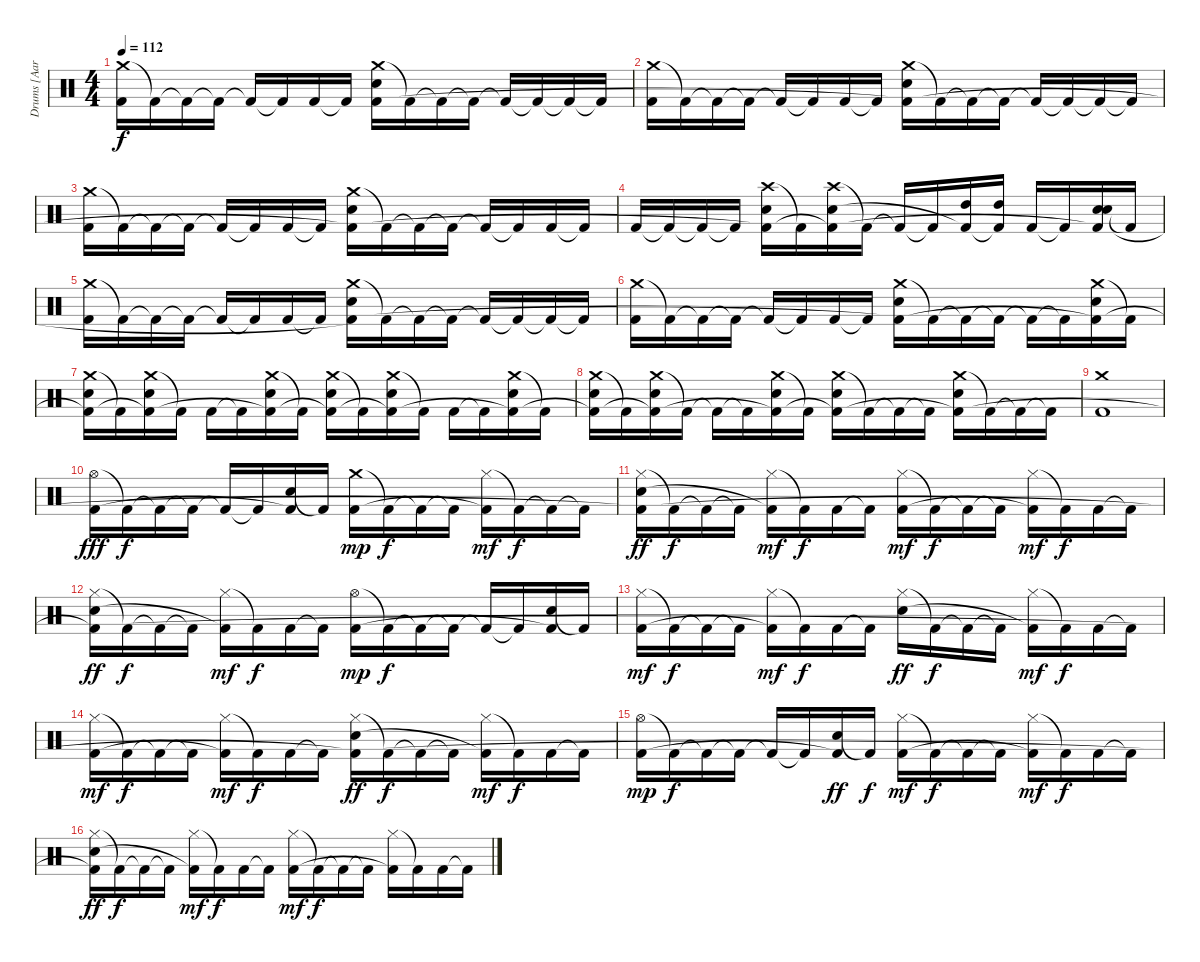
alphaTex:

\track ("Drums [Aaron Harris]" "Drums [Aar") {instrument percussion}
\staff {score}
\articulation defaults
\ts (4 4)
\tempo 112
\clef neutral
\ks c
("Crash medium (hit)" "Kick (hit) 2").16{dy f} "Kick (hit) 2"{t}.16 "Kick (hit) 2"{t}.16 "Kick (hit) 2"{t}.16 "Kick (hit) 2"{t}.16 "Kick (hit) 2"{t}.16 "Kick (hit) 2".16 "Kick (hit) 2"{t}.16 ("Crash medium (hit)" "Electric Snare (hit)" "Kick (hit) 2"{t}).16 "Kick (hit) 2"{t}.16 "Kick (hit) 2"{t}.16 "Kick (hit) 2"{t}.16 "Kick (hit) 2"{t}.16 "Kick (hit) 2"{t}.16 "Kick (hit) 2"{t}.16 "Kick (hit) 2"{t}.16 |
("Crash medium (hit)" "Kick (hit) 2").16 "Kick (hit) 2"{t}.16 "Kick (hit) 2"{t}.16 "Kick (hit) 2"{t}.16 "Kick (hit) 2"{t}.16 "Kick (hit) 2"{t}.16 "Kick (hit) 2".16 "Kick (hit) 2"{t}.16 ("Crash medium (hit)" "Electric Snare (hit)" "Kick (hit) 2"{t}).16 "Kick (hit) 2"{t}.16 "Kick (hit) 2"{t}.16 "Kick (hit) 2"{t}.16 "Kick (hit) 2"{t}.16 "Kick (hit) 2"{t}.16 "Kick (hit) 2"{t}.16 "Kick (hit) 2"{t}.16 |
("Crash medium (hit)" "Kick (hit) 2").16 "Kick (hit) 2"{t}.16 "Kick (hit) 2"{t}.16 "Kick (hit) 2"{t}.16 "Kick (hit) 2"{t}.16 "Kick (hit) 2"{t}.16 "Kick (hit) 2".16 "Kick (hit) 2"{t}.16 ("Crash medium (hit)" "Electric Snare (hit)" "Kick (hit) 2"{t}).16 "Kick (hit) 2"{t}.16 "Kick (hit) 2"{t}.16 "Kick (hit) 2"{t}.16 "Kick (hit) 2"{t}.16 "Kick (hit) 2"{t}.16 "Kick (hit) 2".16 "Kick (hit) 2"{t}.16 |
"Kick (hit) 2".16 "Kick (hit) 2"{t}.16 "Kick (hit) 2"{t}.16 "Kick (hit) 2"{t}.16 ("Crash high (hit)" "Electric Snare (hit)" "Kick (hit) 2"{t}).16 "Kick (hit) 2"{t}.16 ("Crash high (hit)" "Electric Snare (hit)" "Kick (hit) 2"{t}).16 "Kick (hit) 2"{t}.16 "Kick (hit) 2"{t}.16 "Kick (hit) 2"{t}.16 ("High Tom (hit)" "Kick (hit) 2"{t}).16 ("High Tom (hit)" "Kick (hit) 2"{t}).16 "Kick (hit) 2".16 "Kick (hit) 2"{t}.16 ("Electric Snare (hit)" "Electric Snare (hit)" "Kick (hit) 2"{t}).16 "Kick (hit) 2"{t}.16 |
("Crash medium (hit)" "Kick (hit) 2").16 "Kick (hit) 2"{t}.16 "Kick (hit) 2"{t}.16 "Kick (hit) 2"{t}.16 "Kick (hit) 2"{t}.16 "Kick (hit) 2"{t}.16 "Kick (hit) 2".16 "Kick (hit) 2"{t}.16 ("Crash medium (hit)" "Electric Snare (hit)" "Kick (hit) 2"{t}).16 "Kick (hit) 2"{t}.16 "Kick (hit) 2"{t}.16 "Kick (hit) 2"{t}.16 "Kick (hit) 2"{t}.16 "Kick (hit) 2"{t}.16 "Kick (hit) 2"{t}.16 "Kick (hit) 2"{t}.16 |
("Crash medium (hit)" "Kick (hit) 2").16 "Kick (hit) 2"{t}.16 "Kick (hit) 2"{t}.16 "Kick (hit) 2"{t}.16 "Kick (hit) 2"{t}.16 "Kick (hit) 2"{t}.16 "Kick (hit) 2".16 "Kick (hit) 2"{t}.16 ("Crash medium (hit)" "Electric Snare (hit)" "Kick (hit) 2"{t}).16 "Kick (hit) 2"{t}.16 "Kick (hit) 2"{t}.16 "Kick (hit) 2"{t}.16 "Kick (hit) 2"{t}.16 "Kick (hit) 2"{t}.16 ("Crash medium (hit)" "Electric Snare (hit)" "Kick (hit) 2"{t}).16 "Kick (hit) 2"{t}.16 |
("Crash medium (hit)" "Electric Snare (hit)" "Kick (hit) 2"{t}).16 "Kick (hit) 2"{t}.16 ("Crash medium (hit)" "Electric Snare (hit)" "Kick (hit) 2"{t}).16 "Kick (hit) 2"{t}.16 "Kick (hit) 2".16 "Kick (hit) 2"{t}.16 ("Crash medium (hit)" "Electric Snare (hit)" "Kick (hit) 2"{t}).16 "Kick (hit) 2"{t}.16 ("Crash medium (hit)" "Electric Snare (hit)" "Kick (hit) 2"{t}).16 "Kick (hit) 2"{t}.16 ("Crash medium (hit)" "Electric Snare (hit)" "Kick (hit) 2"{t}).16 "Kick (hit) 2"{t}.16 "Kick (hit) 2".16 "Kick (hit) 2"{t}.16 ("Crash medium (hit)" "Electric Snare (hit)" "Kick (hit) 2"{t}).16 "Kick (hit) 2"{t}.16 |
("Crash medium (hit)" "Electric Snare (hit)" "Kick (hit) 2"{t}).16 "Kick (hit) 2"{t}.16 ("Crash medium (hit)" "Electric Snare (hit)" "Kick (hit) 2"{t}).16 "Kick (hit) 2"{t}.16 "Kick (hit) 2"{t}.16 "Kick (hit) 2"{t}.16 ("Crash medium (hit)" "Electric Snare (hit)" "Kick (hit) 2"{t}).16 "Kick (hit) 2"{t}.16 ("Crash medium (hit)" "Electric Snare (hit)" "Kick (hit) 2"{t}).16 "Kick (hit) 2"{t}.16 "Kick (hit) 2"{t}.16 "Kick (hit) 2"{t}.16 ("Crash medium (hit)" "Electric Snare (hit)" "Kick (hit) 2"{t}).16 "Kick (hit) 2"{t}.16 "Kick (hit) 2"{t}.16 "Kick (hit) 2"{t}.16 |
("Crash medium (hit)" "Kick (hit) 2").1 |
("Hi-Hat (open)" "Kick (hit) 2").16{dy fff} "Kick (hit) 2"{t}.16{dy f} "Kick (hit) 2"{t}.16 "Kick (hit) 2"{t}.16 "Kick (hit) 2"{t}.16 "Kick (hit) 2"{t}.16 ("Electric Snare (hit)" "Kick (hit) 2"{t}).16 "Kick (hit) 2"{t}.16 ("Crash medium (hit)" "Kick (hit) 2").16{dy mp} "Kick (hit) 2"{t}.16{dy f} "Kick (hit) 2"{t}.16 "Kick (hit) 2"{t}.16 ("Hi-Hat (closed)" "Kick (hit) 2"{t}).16{dy mf} "Kick (hit) 2"{t}.16{dy f} "Kick (hit) 2"{t}.16 "Kick (hit) 2"{t}.16 |
("Hi-Hat (closed)" "Electric Snare (hit)" "Kick (hit) 2"{t}).16{dy ff} "Kick (hit) 2"{t}.16{dy f} "Kick (hit) 2"{t}.16 "Kick (hit) 2"{t}.16 ("Hi-Hat (closed)" "Kick (hit) 2"{t}).16{dy mf} "Kick (hit) 2"{t}.16{dy f} "Kick (hit) 2".16 "Kick (hit) 2"{t}.16 ("Hi-Hat (closed)" "Kick (hit) 2").16{dy mf} "Kick (hit) 2"{t}.16{dy f} "Kick (hit) 2"{t}.16 "Kick (hit) 2"{t}.16 ("Hi-Hat (closed)" "Kick (hit) 2"{t}).16{dy mf} "Kick (hit) 2"{t}.16{dy f} "Kick (hit) 2".16 "Kick (hit) 2"{t}.16 |
("Hi-Hat (closed)" "Electric Snare (hit)" "Kick (hit) 2"{t}).16{dy ff} "Kick (hit) 2"{t}.16{dy f} "Kick (hit) 2"{t}.16 "Kick (hit) 2"{t}.16 ("Hi-Hat (closed)" "Kick (hit) 2"{t}).16{dy mf} "Kick (hit) 2"{t}.16{dy f} "Kick (hit) 2".16 "Kick (hit) 2"{t}.16 ("Hi-Hat (open)" "Kick (hit) 2").16{dy mp} "Kick (hit) 2"{t}.16{dy f} "Kick (hit) 2"{t}.16 "Kick (hit) 2"{t}.16 "Kick (hit) 2"{t}.16 "Kick (hit) 2"{t}.16 ("Electric Snare (hit)" "Kick (hit) 2"{t}).16 "Kick (hit) 2"{t}.16 |
("Hi-Hat (closed)" "Kick (hit) 2").16{dy mf} "Kick (hit) 2"{t}.16{dy f} "Kick (hit) 2"{t}.16 "Kick (hit) 2"{t}.16 ("Hi-Hat (closed)" "Kick (hit) 2"{t}).16{dy mf} "Kick (hit) 2"{t}.16{dy f} "Kick (hit) 2".16 "Kick (hit) 2"{t}.16 ("Hi-Hat (closed)" "Electric Snare (hit)").16{dy ff} "Kick (hit) 2"{t}.16{dy f} "Kick (hit) 2"{t}.16 "Kick (hit) 2"{t}.16 ("Hi-Hat (closed)" "Kick (hit) 2"{t}).16{dy mf} "Kick (hit) 2"{t}.16{dy f} "Kick (hit) 2".16 "Kick (hit) 2"{t}.16 |
("Hi-Hat (closed)" "Kick (hit) 2").16{dy mf} "Kick (hit) 2"{t}.16{dy f} "Kick (hit) 2"{t}.16 "Kick (hit) 2"{t}.16 ("Hi-Hat (closed)" "Kick (hit) 2"{t}).16{dy mf} "Kick (hit) 2"{t}.16{dy f} "Kick (hit) 2".16 "Kick (hit) 2"{t}.16 ("Hi-Hat (closed)" "Electric Snare (hit)" "Kick (hit) 2"{t}).16{dy ff} "Kick (hit) 2"{t}.16{dy f} "Kick (hit) 2"{t}.16 "Kick (hit) 2"{t}.16 ("Hi-Hat (closed)" "Kick (hit) 2"{t}).16{dy mf} "Kick (hit) 2"{t}.16{dy f} "Kick (hit) 2".16 "Kick (hit) 2"{t}.16 |
("Hi-Hat (open)" "Kick (hit) 2").16{dy mp} "Kick (hit) 2"{t}.16{dy f} "Kick (hit) 2"{t}.16 "Kick (hit) 2"{t}.16 "Kick (hit) 2"{t}.16 "Kick (hit) 2"{t}.16 ("Electric Snare (hit)" "Kick (hit) 2"{t}).16{dy ff} "Kick (hit) 2"{t}.16{dy f} ("Hi-Hat (closed)" "Kick (hit) 2").16{dy mf} "Kick (hit) 2"{t}.16{dy f} "Kick (hit) 2"{t}.16 "Kick (hit) 2"{t}.16 ("Hi-Hat (closed)" "Kick (hit) 2"{t}).16{dy mf} "Kick (hit) 2"{t}.16{dy f} "Kick (hit) 2".16 "Kick (hit) 2"{t}.16 |
("Hi-Hat (closed)" "Electric Snare (hit)" "Kick (hit) 2"{t}).16{dy ff} "Kick (hit) 2"{t}.16{dy f} "Kick (hit) 2"{t}.16 "Kick (hit) 2"{t}.16 ("Hi-Hat (closed)" "Kick (hit) 2"{t}).16{dy mf} "Kick (hit) 2"{t}.16{dy f} "Kick (hit) 2".16 "Kick (hit) 2"{t}.16 ("Hi-Hat (closed)" "Kick (hit) 2").16{dy mf} "Kick (hit) 2"{t}.16{dy f} "Kick (hit) 2"{t}.16 "Kick (hit) 2"{t}.16 ("Hi-Hat (closed)" "Kick (hit) 2"{t}).16 "Kick (hit) 2"{t}.16 "Kick (hit) 2".16 "Kick (hit) 2"{t}.16
